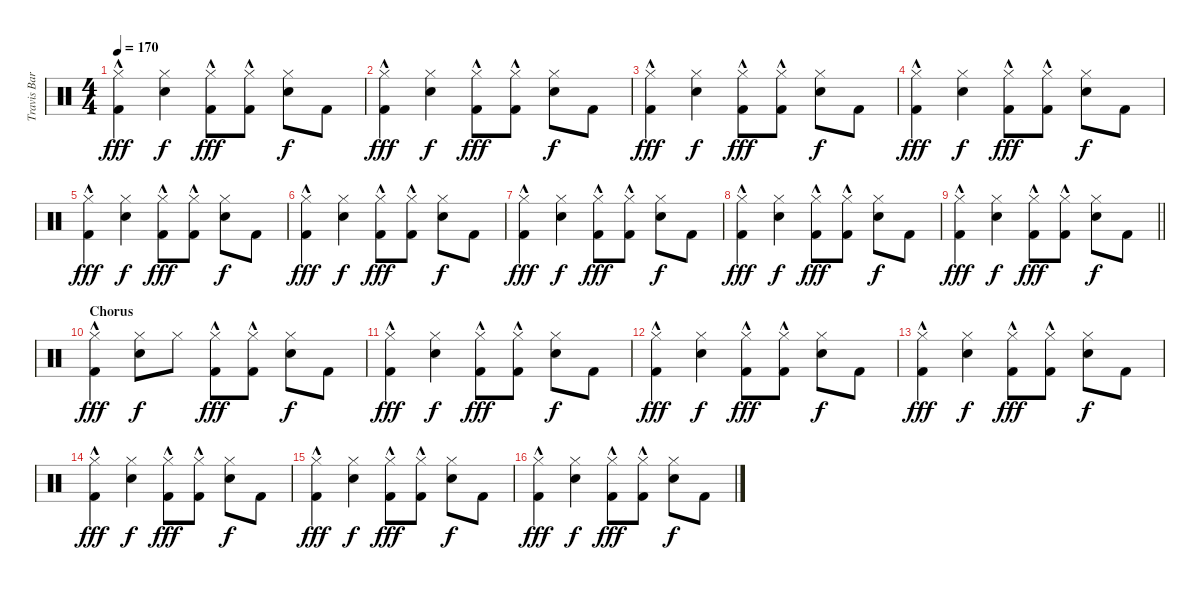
\track ("Travis Barker" "Travis Bar") {instrument percussion}
\staff {score}
\articulation defaults
\ts (4 4)
\tempo 170
\clef neutral
\ks c
("Hi-Hat (closed)" "Kick (hit) 2"{hac}).4{dy fff} ("Hi-Hat (closed)" "Snare (hit) 2").4{dy f} ("Hi-Hat (closed)" "Kick (hit) 2"{hac}).8{dy fff} ("Hi-Hat (closed)" "Kick (hit) 2"{hac}).8 ("Hi-Hat (closed)" "Snare (hit) 2").8{dy f} "Kick (hit) 2".8 |
("Hi-Hat (closed)" "Kick (hit) 2"{hac}).4{dy fff} ("Hi-Hat (closed)" "Snare (hit) 2").4{dy f} ("Hi-Hat (closed)" "Kick (hit) 2"{hac}).8{dy fff} ("Hi-Hat (closed)" "Kick (hit) 2"{hac}).8 ("Hi-Hat (closed)" "Snare (hit) 2").8{dy f} "Kick (hit) 2".8 |
("Hi-Hat (closed)" "Kick (hit) 2"{hac}).4{dy fff} ("Hi-Hat (closed)" "Snare (hit) 2").4{dy f} ("Hi-Hat (closed)" "Kick (hit) 2"{hac}).8{dy fff} ("Hi-Hat (closed)" "Kick (hit) 2"{hac}).8 ("Hi-Hat (closed)" "Snare (hit) 2").8{dy f} "Kick (hit) 2".8 |
("Hi-Hat (closed)" "Kick (hit) 2"{hac}).4{dy fff} ("Hi-Hat (closed)" "Snare (hit) 2").4{dy f} ("Hi-Hat (closed)" "Kick (hit) 2"{hac}).8{dy fff} ("Hi-Hat (closed)" "Kick (hit) 2"{hac}).8 ("Hi-Hat (closed)" "Snare (hit) 2").8{dy f} "Kick (hit) 2".8 |
("Hi-Hat (closed)" "Kick (hit) 2"{hac}).4{dy fff} ("Hi-Hat (closed)" "Snare (hit) 2").4{dy f} ("Hi-Hat (closed)" "Kick (hit) 2"{hac}).8{dy fff} ("Hi-Hat (closed)" "Kick (hit) 2"{hac}).8 ("Hi-Hat (closed)" "Snare (hit) 2").8{dy f} "Kick (hit) 2".8 |
("Hi-Hat (closed)" "Kick (hit) 2"{hac}).4{dy fff} ("Hi-Hat (closed)" "Snare (hit) 2").4{dy f} ("Hi-Hat (closed)" "Kick (hit) 2"{hac}).8{dy fff} ("Hi-Hat (closed)" "Kick (hit) 2"{hac}).8 ("Hi-Hat (closed)" "Snare (hit) 2").8{dy f} "Kick (hit) 2".8 |
("Hi-Hat (closed)" "Kick (hit) 2"{hac}).4{dy fff} ("Hi-Hat (closed)" "Snare (hit) 2").4{dy f} ("Hi-Hat (closed)" "Kick (hit) 2"{hac}).8{dy fff} ("Hi-Hat (closed)" "Kick (hit) 2"{hac}).8 ("Hi-Hat (closed)" "Snare (hit) 2").8{dy f} "Kick (hit) 2".8 |
("Hi-Hat (closed)" "Kick (hit) 2"{hac}).4{dy fff} ("Hi-Hat (closed)" "Snare (hit) 2").4{dy f} ("Hi-Hat (closed)" "Kick (hit) 2"{hac}).8{dy fff} ("Hi-Hat (closed)" "Kick (hit) 2"{hac}).8 ("Hi-Hat (closed)" "Snare (hit) 2").8{dy f} "Kick (hit) 2".8 |
\barLineRight lightlight
("Hi-Hat (closed)" "Kick (hit) 2"{hac}).4{dy fff} ("Hi-Hat (closed)" "Snare (hit) 2").4{dy f} ("Hi-Hat (closed)" "Kick (hit) 2"{hac}).8{dy fff} ("Hi-Hat (closed)" "Kick (hit) 2"{hac}).8 ("Hi-Hat (closed)" "Snare (hit) 2").8{dy f} "Kick (hit) 2".8 |
\section ("" "Chorus")
("Hi-Hat (closed)" "Kick (hit) 2"{hac}).4{dy fff} ("Hi-Hat (closed)" "Snare (hit) 2").8{dy f} "Hi-Hat (closed)".8 ("Hi-Hat (closed)" "Kick (hit) 2"{hac}).8{dy fff} ("Hi-Hat (closed)" "Kick (hit) 2"{hac}).8 ("Hi-Hat (closed)" "Snare (hit) 2").8{dy f} "Kick (hit) 2".8 |
("Hi-Hat (closed)" "Kick (hit) 2"{hac}).4{dy fff} ("Hi-Hat (closed)" "Snare (hit) 2").4{dy f} ("Hi-Hat (closed)" "Kick (hit) 2"{hac}).8{dy fff} ("Hi-Hat (closed)" "Kick (hit) 2"{hac}).8 ("Hi-Hat (closed)" "Snare (hit) 2").8{dy f} "Kick (hit) 2".8 |
("Hi-Hat (closed)" "Kick (hit) 2"{hac}).4{dy fff} ("Hi-Hat (closed)" "Snare (hit) 2").4{dy f} ("Hi-Hat (closed)" "Kick (hit) 2"{hac}).8{dy fff} ("Hi-Hat (closed)" "Kick (hit) 2"{hac}).8 ("Hi-Hat (closed)" "Snare (hit) 2").8{dy f} "Kick (hit) 2".8 |
("Hi-Hat (closed)" "Kick (hit) 2"{hac}).4{dy fff} ("Hi-Hat (closed)" "Snare (hit) 2").4{dy f} ("Hi-Hat (closed)" "Kick (hit) 2"{hac}).8{dy fff} ("Hi-Hat (closed)" "Kick (hit) 2"{hac}).8 ("Hi-Hat (closed)" "Snare (hit) 2").8{dy f} "Kick (hit) 2".8 |
("Hi-Hat (closed)" "Kick (hit) 2"{hac}).4{dy fff} ("Hi-Hat (closed)" "Snare (hit) 2").4{dy f} ("Hi-Hat (closed)" "Kick (hit) 2"{hac}).8{dy fff} ("Hi-Hat (closed)" "Kick (hit) 2"{hac}).8 ("Hi-Hat (closed)" "Snare (hit) 2").8{dy f} "Kick (hit) 2".8 |
("Hi-Hat (closed)" "Kick (hit) 2"{hac}).4{dy fff} ("Hi-Hat (closed)" "Snare (hit) 2").4{dy f} ("Hi-Hat (closed)" "Kick (hit) 2"{hac}).8{dy fff} ("Hi-Hat (closed)" "Kick (hit) 2"{hac}).8 ("Hi-Hat (closed)" "Snare (hit) 2").8{dy f} "Kick (hit) 2".8 |
("Hi-Hat (closed)" "Kick (hit) 2"{hac}).4{dy fff} ("Hi-Hat (closed)" "Snare (hit) 2").4{dy f} ("Hi-Hat (closed)" "Kick (hit) 2"{hac}).8{dy fff} ("Hi-Hat (closed)" "Kick (hit) 2"{hac}).8 ("Hi-Hat (closed)" "Snare (hit) 2").8{dy f} "Kick (hit) 2".8
